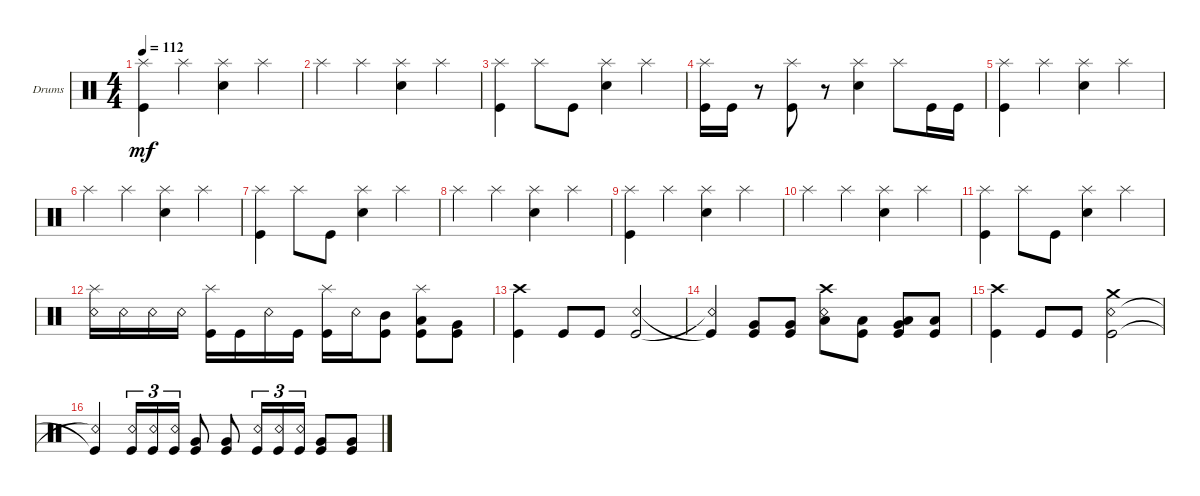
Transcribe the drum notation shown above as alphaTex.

\defaultSystemsLayout 4
\bracketExtendMode groupsimilarinstruments
\firstSystemTrackNameOrientation horizontal
\otherSystemsTrackNameOrientation horizontal
\track ("Drumkit" "Drums") {instrument percussion}
\staff {score}
\articulation defaults
\ts (4 4)
\tempo 112
\clef neutral
\ks c
("Splash (hit)" "Kick (hit)").4{dy mf} "Splash (hit)".4 ("Splash (hit)" "Snare (hit) 2").4 "Splash (hit)".4 |
"Splash (hit)".4 "Splash (hit)".4 ("Splash (hit)" "Snare (hit) 2").4 "Splash (hit)".4 |
("Splash (hit)" "Kick (hit)").4 "Splash (hit)".8 "Kick (hit)".8 ("Splash (hit)" "Snare (hit) 2").4 "Splash (hit)".4 |
("Splash (hit)" "Kick (hit)").16 "Kick (hit)".16 r.8 ("Kick (hit)" "Splash (hit)").8 r.8 ("Splash (hit)" "Snare (hit) 2").4 "Splash (hit)".8 "Kick (hit)".16 "Kick (hit)".16 |
("Splash (hit)" "Kick (hit)").4 "Splash (hit)".4 ("Splash (hit)" "Snare (hit) 2").4 "Splash (hit)".4 |
"Splash (hit)".4 "Splash (hit)".4 ("Splash (hit)" "Snare (hit) 2").4 "Splash (hit)".4 |
("Splash (hit)" "Kick (hit)").4 "Splash (hit)".8 "Kick (hit)".8 ("Splash (hit)" "Snare (hit) 2").4 "Splash (hit)".4 |
"Splash (hit)".4 "Splash (hit)".4 ("Splash (hit)" "Snare (hit) 2").4 "Splash (hit)".4 |
("Splash (hit)" "Kick (hit)").4 "Splash (hit)".4 ("Splash (hit)" "Snare (hit) 2").4 "Splash (hit)".4 |
"Splash (hit)".4 "Splash (hit)".4 ("Splash (hit)" "Snare (hit) 2").4 "Splash (hit)".4 |
("Splash (hit)" "Kick (hit)").4 "Splash (hit)".8 "Kick (hit)".8 ("Splash (hit)" "Snare (hit) 2").4 "Splash (hit)".4 |
("Snare (rim shot)" "Splash (hit)").16 "Snare (rim shot)".16 "Snare (rim shot)".16 "Snare (rim shot)".16 ("Kick (hit)" "Splash (hit)").16 "Kick (hit)".16 "Snare (rim shot)".16 "Kick (hit)".16 ("Kick (hit)" "Splash (hit)").16 "Snare (rim shot)".16 ("Kick (hit)" "Mid Tom (hit)").8 ("Kick (hit)" "Low Tom (hit)" "Splash (hit)").8 ("Kick (hit)" "Very Low Tom (hit)").8 |
("Kick (hit)" "Crash high (hit)").4 "Kick (hit)".8 "Kick (hit)".8 ("Snare (rim shot)" "Kick (hit)").2 |
("Kick (hit)"{t} "Snare (rim shot)"{t}).4 ("Kick (hit)" "Very Low Tom (hit)").8 ("Kick (hit)" "Very Low Tom (hit)").8 ("Snare (rim shot)" "Crash high (hit)" "Low Tom (hit)").8 ("Kick (hit)" "Low Tom (hit)").8 ("Kick (hit)" "Very Low Tom (hit)" "Low Tom (hit)").8 ("Kick (hit)" "Low Tom (hit)").8 |
("Kick (hit)" "Crash high (hit)").4 "Kick (hit)".8 "Kick (hit)".8 ("Snare (rim shot)" "Kick (hit)" "Crash medium (hit)").2 |
("Kick (hit)"{t} "Snare (rim shot)"{t}).4 ("Snare (rim shot)" "Kick (hit)").16{tu (3 2)} ("Kick (hit)" "Snare (rim shot)").16{tu (3 2)} ("Kick (hit)" "Snare (rim shot)").16{tu (3 2)} ("Kick (hit)" "Very Low Tom (hit)").8 ("Kick (hit)" "Very Low Tom (hit)").8 ("Snare (rim shot)" "Kick (hit)").16{tu (3 2)} ("Snare (rim shot)" "Kick (hit)").16{tu (3 2)} ("Snare (rim shot)" "Kick (hit)").16{tu (3 2)} ("Kick (hit)" "Very Low Tom (hit)").8 ("Kick (hit)" "Very Low Tom (hit)").8
